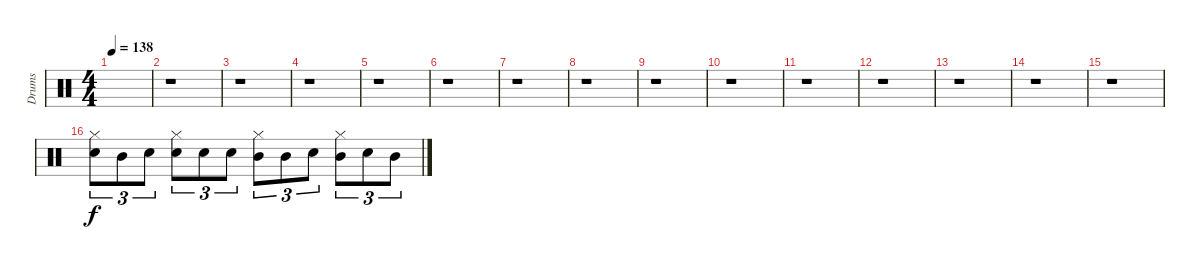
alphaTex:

\track ("Drums" "Drums") {instrument percussion}
\staff {score}
\articulation defaults
\ts (4 4)
\tempo 138
\clef neutral
\ks c
|
r.1 |
r.1 |
r.1 |
r.1 |
r.1 |
r.1 |
r.1 |
r.1 |
r.1 |
r.1 |
r.1 |
r.1 |
r.1 |
r.1 |
("Hi-Hat (closed)" "Snare (hit) 2").8{tu (3 2)} "Mid Tom (hit)".8{tu (3 2)} "Snare (hit) 2".8{tu (3 2)} ("Hi-Hat (closed)" "Snare (hit) 2").8{tu (3 2)} "Snare (hit) 2".8{tu (3 2)} "Snare (hit) 2".8{tu (3 2)} ("Hi-Hat (closed)" "Mid Tom (hit)").8{tu (3 2)} "Mid Tom (hit)".8{tu (3 2)} "Snare (hit) 2".8{tu (3 2)} ("Hi-Hat (closed)" "Mid Tom (hit)").8{tu (3 2)} "Snare (hit) 2".8{tu (3 2)} "Mid Tom (hit)".8{tu (3 2)}
